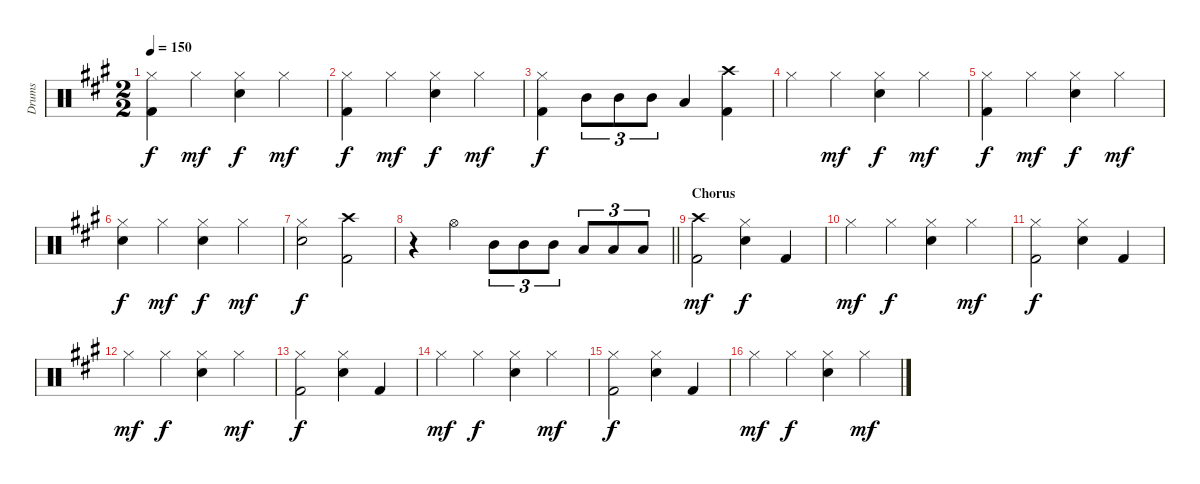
\track ("Drums" "Drums") {instrument percussion}
\staff {score}
\articulation defaults
\ts (2 2)
\tempo 150
\clef neutral
\ks a
("Hi-Hat (closed)" "Kick (hit) 2").4{dy f} "Hi-Hat (closed)".4{dy mf} ("Hi-Hat (closed)" "Electric Snare (hit)").4{dy f} "Hi-Hat (closed)".4{dy mf} |
("Hi-Hat (closed)" "Kick (hit) 2").4{dy f} "Hi-Hat (closed)".4{dy mf} ("Hi-Hat (closed)" "Electric Snare (hit)").4{dy f} "Hi-Hat (closed)".4{dy mf} |
("Hi-Hat (closed)" "Kick (hit) 2").4{dy f} "Mid Tom (hit)".8{tu (3 2)} "Mid Tom (hit)".8{tu (3 2)} "Mid Tom (hit)".8{tu (3 2)} "Low Tom (hit)".4 ("Crash high (hit)" "Kick (hit) 2").4 |
"Hi-Hat (closed)".4 "Hi-Hat (closed)".4{dy mf} ("Hi-Hat (closed)" "Electric Snare (hit)").4{dy f} "Hi-Hat (closed)".4{dy mf} |
("Hi-Hat (closed)" "Kick (hit) 2").4{dy f} "Hi-Hat (closed)".4{dy mf} ("Hi-Hat (closed)" "Electric Snare (hit)").4{dy f} "Hi-Hat (closed)".4{dy mf} |
("Hi-Hat (closed)" "Electric Snare (hit)").4{dy f} "Hi-Hat (closed)".4{dy mf} ("Hi-Hat (closed)" "Electric Snare (hit)").4{dy f} "Hi-Hat (closed)".4{dy mf} |
("Hi-Hat (closed)" "Electric Snare (hit)").2{dy f} ("Crash high (hit)" "Kick (hit) 2").2 |
\barLineRight lightlight
r.4 "Hi-Hat (open)".4 "Mid Tom (hit)".8{tu (3 2)} "Mid Tom (hit)".8{tu (3 2)} "Mid Tom (hit)".8{tu (3 2)} "Low Tom (hit)".8{tu (3 2)} "Low Tom (hit)".8{tu (3 2)} "Low Tom (hit)".8{tu (3 2)} |
\section ("" "Chorus")
("Crash high (hit)" "Kick (hit) 2").2{dy mf} ("Hi-Hat (closed)" "Electric Snare (hit)").4{dy f} "Kick (hit) 2".4 |
"Hi-Hat (closed)".4{dy mf} "Hi-Hat (closed)".4{dy f} ("Hi-Hat (closed)" "Electric Snare (hit)").4 "Hi-Hat (closed)".4{dy mf} |
("Hi-Hat (closed)" "Kick (hit) 2").2{dy f} ("Hi-Hat (closed)" "Electric Snare (hit)").4 "Kick (hit) 2".4 |
"Hi-Hat (closed)".4{dy mf} "Hi-Hat (closed)".4{dy f} ("Hi-Hat (closed)" "Electric Snare (hit)").4 "Hi-Hat (closed)".4{dy mf} |
("Hi-Hat (closed)" "Kick (hit) 2").2{dy f} ("Hi-Hat (closed)" "Electric Snare (hit)").4 "Kick (hit) 2".4 |
"Hi-Hat (closed)".4{dy mf} "Hi-Hat (closed)".4{dy f} ("Hi-Hat (closed)" "Electric Snare (hit)").4 "Hi-Hat (closed)".4{dy mf} |
("Hi-Hat (closed)" "Kick (hit) 2").2{dy f} ("Hi-Hat (closed)" "Electric Snare (hit)").4 "Kick (hit) 2".4 |
"Hi-Hat (closed)".4{dy mf} "Hi-Hat (closed)".4{dy f} ("Hi-Hat (closed)" "Electric Snare (hit)").4 "Hi-Hat (closed)".4{dy mf}
